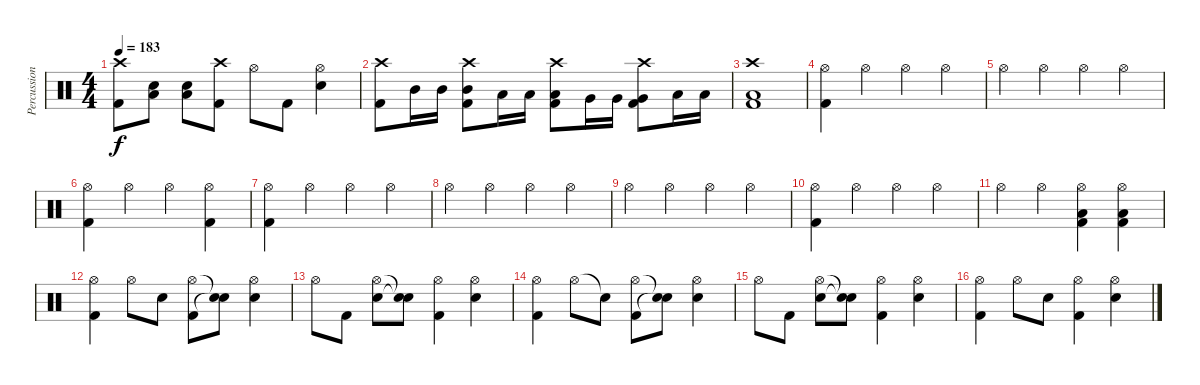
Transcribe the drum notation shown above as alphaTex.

\track ("Percussion" "Percussion") {instrument percussion}
\staff {score}
\articulation defaults
\ts (4 4)
\tempo 183
\clef neutral
\ks c
("Crash high (hit)" "Kick (hit) 2").8{dy f} ("Electric Snare (hit)" "Low Floor Tom (hit)").8 ("Electric Snare (hit)" "Low Floor Tom (hit)").8 ("Crash high (hit)" "Kick (hit) 2").8 "Hi-Hat (open)".8 "Kick (hit) 2".8 ("Hi-Hat (open)" "Electric Snare (hit)").4 |
("Crash high (hit)" "Kick (hit) 2").8 "Mid Tom (hit)".16 "Mid Tom (hit)".16 ("Crash high (hit)" "Mid Tom (hit)" "Kick (hit) 2").8 "Low Tom (hit)".16 "Low Tom (hit)".16 ("Crash high (hit)" "Low Tom (hit)" "Kick (hit) 2").8 "Very Low Tom (hit)".16 "Very Low Tom (hit)".16 ("Crash high (hit)" "Very Low Tom (hit)" "Kick (hit) 2").8 "Low Floor Tom (hit)".16 "Low Floor Tom (hit)".16 |
("Crash high (hit)" "Low Floor Tom (hit)" "Kick (hit) 2").1 |
("Hi-Hat (open)" "Kick (hit) 2").4 "Hi-Hat (open)".4 "Hi-Hat (open)".4 "Hi-Hat (open)".4 |
"Hi-Hat (open)".4 "Hi-Hat (open)".4 "Hi-Hat (open)".4 "Hi-Hat (open)".4 |
("Hi-Hat (open)" "Kick (hit) 2").4 "Hi-Hat (open)".4 "Hi-Hat (open)".4 ("Hi-Hat (open)" "Kick (hit) 2").4 |
("Hi-Hat (open)" "Kick (hit) 2").4 "Hi-Hat (open)".4 "Hi-Hat (open)".4 "Hi-Hat (open)".4 |
"Hi-Hat (open)".4 "Hi-Hat (open)".4 "Hi-Hat (open)".4 "Hi-Hat (open)".4 |
"Hi-Hat (open)".4 "Hi-Hat (open)".4 "Hi-Hat (open)".4 "Hi-Hat (open)".4 |
("Hi-Hat (open)" "Kick (hit) 2").4 "Hi-Hat (open)".4 "Hi-Hat (open)".4 "Hi-Hat (open)".4 |
"Hi-Hat (open)".4 "Hi-Hat (open)".4 ("Hi-Hat (open)" "Low Floor Tom (hit)" "Kick (hit) 2").4 ("Hi-Hat (open)" "Low Floor Tom (hit)" "Kick (hit) 2").4 |
("Hi-Hat (open)" "Kick (hit) 2").4 "Hi-Hat (open)".8 "Electric Snare (hit)".8 ("Hi-Hat (open)" "Kick (hit) 2").8 ("Snare (hit)"{t} "Snare (hit)"{t}).8 ("Hi-Hat (open)" "Electric Snare (hit)").4 |
"Hi-Hat (open)".8 "Kick (hit) 2".8 ("Hi-Hat (open)" "Electric Snare (hit)").8 ("Snare (hit)"{t} "Snare (hit)"{t}).8 ("Hi-Hat (open)" "Kick (hit) 2").4 ("Hi-Hat (open)" "Electric Snare (hit)").4 |
("Hi-Hat (open)" "Kick (hit) 2").4 "Hi-Hat (open)".8 "Snare (hit)"{t}.8 ("Hi-Hat (open)" "Kick (hit) 2").8 ("Snare (hit)"{t} "Snare (hit)"{t}).8 ("Hi-Hat (open)" "Electric Snare (hit)").4 |
"Hi-Hat (open)".8 "Kick (hit) 2".8 ("Hi-Hat (open)" "Electric Snare (hit)").8 ("Snare (hit)"{t} "Snare (hit)"{t}).8 ("Hi-Hat (open)" "Kick (hit) 2").4 ("Hi-Hat (open)" "Electric Snare (hit)").4 |
("Hi-Hat (open)" "Kick (hit) 2").4 "Hi-Hat (open)".8 "Electric Snare (hit)".8 ("Hi-Hat (open)" "Kick (hit) 2").4 ("Hi-Hat (open)" "Electric Snare (hit)").4
